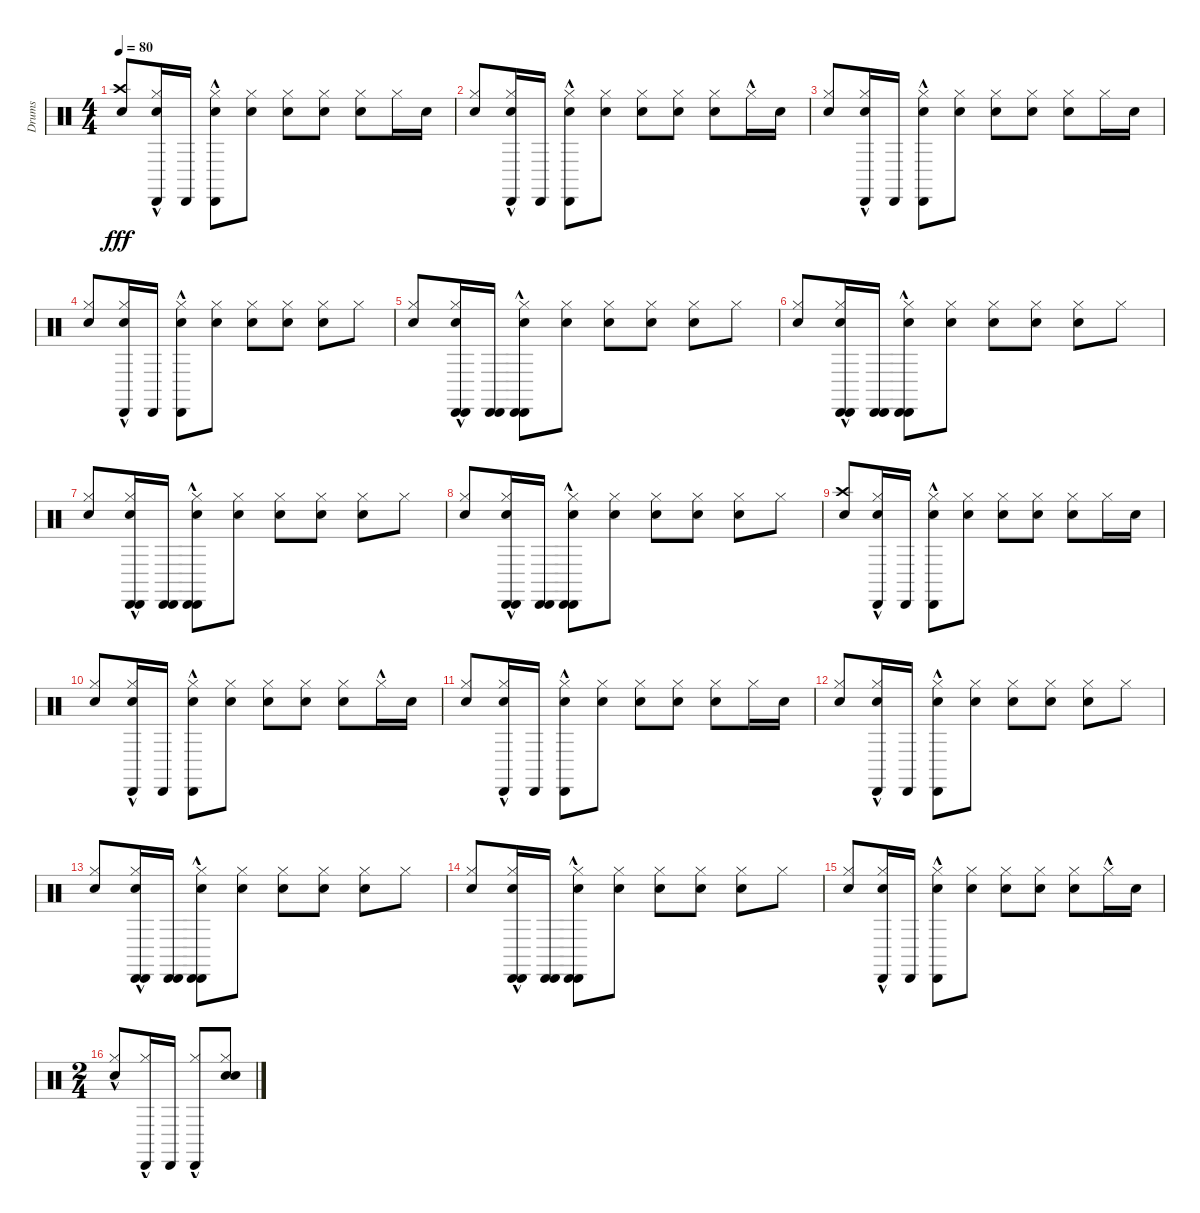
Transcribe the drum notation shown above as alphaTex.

\track ("Drums" "Drums") {instrument percussion}
\staff {score}
\articulation defaults
\ts (4 4)
\tempo 80
\clef neutral
\ks c
("Crash high (hit)" "Snare (hit)").8{dy fff} ("Cabasa (hit)" "Snare (hit)"{hac} "Hi-Hat (closed)"{hac}).16 "Cabasa (hit)".16 ("Cabasa (hit)"{hac} "Snare (hit) 2"{hac} "Hi-Hat (closed)"{hac}).8 ("Snare (hit)" "Hi-Hat (closed)").8 ("Snare (hit)" "Hi-Hat (closed)").8 ("Snare (hit)" "Hi-Hat (closed)").8 ("Snare (hit) 2" "Hi-Hat (closed)").8 "Hi-Hat (closed)".16 "Snare (hit) 2".16 |
("Snare (hit)" "Hi-Hat (closed)").8 ("Cabasa (hit)" "Snare (hit)" "Hi-Hat (closed)"{hac}).16 "Cabasa (hit)".16 ("Cabasa (hit)"{hac} "Snare (hit) 2" "Hi-Hat (closed)"{hac}).8 ("Snare (hit)" "Hi-Hat (closed)").8 ("Snare (hit)" "Hi-Hat (closed)").8 ("Snare (hit)" "Hi-Hat (closed)").8 ("Snare (hit) 2" "Hi-Hat (closed)").8 "Hi-Hat (closed)"{hac}.16 "Snare (hit) 2".16 |
("Snare (hit)" "Hi-Hat (closed)").8 ("Cabasa (hit)" "Snare (hit)"{hac} "Hi-Hat (closed)"{hac}).16 "Cabasa (hit)".16 ("Cabasa (hit)"{hac} "Snare (hit) 2"{hac} "Hi-Hat (closed)"{hac}).8 ("Snare (hit)" "Hi-Hat (closed)").8 ("Snare (hit)" "Hi-Hat (closed)").8 ("Snare (hit)" "Hi-Hat (closed)").8 ("Snare (hit) 2" "Hi-Hat (closed)").8 "Hi-Hat (closed)".16 "Snare (hit) 2".16 |
("Hi-Hat (closed)" "Snare (hit)").8 ("Cabasa (hit)" "Hi-Hat (closed)"{hac} "Snare (hit)"{hac}).16 "Cabasa (hit)".16 ("Cabasa (hit)"{hac} "Hi-Hat (closed)"{hac} "Snare (hit) 2"{hac}).8 ("Hi-Hat (closed)" "Snare (hit)").8 ("Hi-Hat (closed)" "Snare (hit)").8 ("Hi-Hat (closed)" "Snare (hit)").8 ("Hi-Hat (closed)" "Snare (hit) 2").8 "Hi-Hat (closed)".8 |
("Hi-Hat (closed)" "Snare (hit)").8 ("Cabasa (hit)" "Cabasa (hit)" "Hi-Hat (closed)"{hac} "Snare (hit)"{hac}).16 ("Cabasa (hit)" "Cabasa (hit)").16 ("Cabasa (hit)"{hac} "Cabasa (hit)"{hac} "Hi-Hat (closed)"{hac} "Snare (hit) 2"{hac}).8 ("Hi-Hat (closed)" "Snare (hit)").8 ("Hi-Hat (closed)" "Snare (hit)").8 ("Hi-Hat (closed)" "Snare (hit)").8 ("Hi-Hat (closed)" "Snare (hit) 2").8 "Hi-Hat (closed)".8 |
("Hi-Hat (closed)" "Snare (hit)").8 ("Cabasa (hit)" "Cabasa (hit)" "Hi-Hat (closed)"{hac} "Snare (hit)"{hac}).16 ("Cabasa (hit)" "Cabasa (hit)").16 ("Cabasa (hit)"{hac} "Cabasa (hit)"{hac} "Hi-Hat (closed)"{hac} "Snare (hit) 2"{hac}).8 ("Hi-Hat (closed)" "Snare (hit)").8 ("Hi-Hat (closed)" "Snare (hit)").8 ("Hi-Hat (closed)" "Snare (hit)").8 ("Hi-Hat (closed)" "Snare (hit) 2").8 "Hi-Hat (closed)".8 |
("Hi-Hat (closed)" "Snare (hit)").8 ("Cabasa (hit)" "Cabasa (hit)" "Hi-Hat (closed)"{hac} "Snare (hit)"{hac}).16 ("Cabasa (hit)" "Cabasa (hit)").16 ("Cabasa (hit)"{hac} "Cabasa (hit)"{hac} "Hi-Hat (closed)"{hac} "Snare (hit) 2"{hac}).8 ("Hi-Hat (closed)" "Snare (hit)").8 ("Hi-Hat (closed)" "Snare (hit)").8 ("Hi-Hat (closed)" "Snare (hit)").8 ("Hi-Hat (closed)" "Snare (hit) 2").8 "Hi-Hat (closed)".8 |
("Hi-Hat (closed)" "Snare (hit)").8 ("Cabasa (hit)" "Cabasa (hit)" "Hi-Hat (closed)"{hac} "Snare (hit)"{hac}).16 ("Cabasa (hit)" "Cabasa (hit)").16 ("Cabasa (hit)"{hac} "Cabasa (hit)"{hac} "Hi-Hat (closed)"{hac} "Snare (hit) 2"{hac}).8 ("Hi-Hat (closed)" "Snare (hit)").8 ("Hi-Hat (closed)" "Snare (hit)").8 ("Hi-Hat (closed)" "Snare (hit)").8 ("Hi-Hat (closed)" "Snare (hit) 2").8 "Hi-Hat (closed)".8 |
("Crash high (hit)" "Snare (hit)").8 ("Cabasa (hit)" "Snare (hit)"{hac} "Hi-Hat (closed)"{hac}).16 "Cabasa (hit)".16 ("Cabasa (hit)"{hac} "Snare (hit) 2"{hac} "Hi-Hat (closed)"{hac}).8 ("Snare (hit)" "Hi-Hat (closed)").8 ("Snare (hit)" "Hi-Hat (closed)").8 ("Snare (hit)" "Hi-Hat (closed)").8 ("Snare (hit) 2" "Hi-Hat (closed)").8 "Hi-Hat (closed)".16 "Snare (hit) 2".16 |
("Snare (hit)" "Hi-Hat (closed)").8 ("Cabasa (hit)" "Snare (hit)" "Hi-Hat (closed)"{hac}).16 "Cabasa (hit)".16 ("Cabasa (hit)"{hac} "Snare (hit) 2" "Hi-Hat (closed)"{hac}).8 ("Snare (hit)" "Hi-Hat (closed)").8 ("Snare (hit)" "Hi-Hat (closed)").8 ("Snare (hit)" "Hi-Hat (closed)").8 ("Snare (hit) 2" "Hi-Hat (closed)").8 "Hi-Hat (closed)"{hac}.16 "Snare (hit) 2".16 |
("Snare (hit)" "Hi-Hat (closed)").8 ("Cabasa (hit)" "Snare (hit)"{hac} "Hi-Hat (closed)"{hac}).16 "Cabasa (hit)".16 ("Cabasa (hit)"{hac} "Snare (hit) 2"{hac} "Hi-Hat (closed)"{hac}).8 ("Snare (hit)" "Hi-Hat (closed)").8 ("Snare (hit)" "Hi-Hat (closed)").8 ("Snare (hit)" "Hi-Hat (closed)").8 ("Snare (hit) 2" "Hi-Hat (closed)").8 "Hi-Hat (closed)".16 "Snare (hit) 2".16 |
("Hi-Hat (closed)" "Snare (hit)").8 ("Cabasa (hit)" "Hi-Hat (closed)"{hac} "Snare (hit)"{hac}).16 "Cabasa (hit)".16 ("Cabasa (hit)"{hac} "Hi-Hat (closed)"{hac} "Snare (hit) 2"{hac}).8 ("Hi-Hat (closed)" "Snare (hit)").8 ("Hi-Hat (closed)" "Snare (hit)").8 ("Hi-Hat (closed)" "Snare (hit)").8 ("Hi-Hat (closed)" "Snare (hit) 2").8 "Hi-Hat (closed)".8 |
("Hi-Hat (closed)" "Snare (hit)").8 ("Cabasa (hit)" "Cabasa (hit)" "Hi-Hat (closed)"{hac} "Snare (hit)"{hac}).16 ("Cabasa (hit)" "Cabasa (hit)").16 ("Cabasa (hit)"{hac} "Cabasa (hit)"{hac} "Hi-Hat (closed)"{hac} "Snare (hit) 2"{hac}).8 ("Hi-Hat (closed)" "Snare (hit)").8 ("Hi-Hat (closed)" "Snare (hit)").8 ("Hi-Hat (closed)" "Snare (hit)").8 ("Hi-Hat (closed)" "Snare (hit) 2").8 "Hi-Hat (closed)".8 |
("Hi-Hat (closed)" "Snare (hit)").8 ("Cabasa (hit)" "Cabasa (hit)" "Hi-Hat (closed)"{hac} "Snare (hit)"{hac}).16 ("Cabasa (hit)" "Cabasa (hit)").16 ("Cabasa (hit)"{hac} "Cabasa (hit)"{hac} "Hi-Hat (closed)"{hac} "Snare (hit) 2"{hac}).8 ("Hi-Hat (closed)" "Snare (hit)").8 ("Hi-Hat (closed)" "Snare (hit)").8 ("Hi-Hat (closed)" "Snare (hit)").8 ("Hi-Hat (closed)" "Snare (hit) 2").8 "Hi-Hat (closed)".8 |
("Hi-Hat (closed)" "Snare (hit)").8 ("Cabasa (hit)" "Hi-Hat (closed)"{hac} "Snare (hit)"{hac}).16 "Cabasa (hit)".16 ("Cabasa (hit)"{hac} "Hi-Hat (closed)"{hac} "Snare (hit) 2"{hac}).8 ("Hi-Hat (closed)" "Snare (hit)").8 ("Hi-Hat (closed)" "Snare (hit)").8 ("Hi-Hat (closed)" "Snare (hit)").8 ("Hi-Hat (closed)" "Snare (hit) 2").8 "Hi-Hat (closed)"{hac}.16 "Snare (hit) 2".16 |
\ts (2 4)
("Hi-Hat (closed)"{hac} "Snare (hit)"{hac}).8 ("Cabasa (hit)" "Hi-Hat (closed)"{hac}).16 "Cabasa (hit)".16 ("Cabasa (hit)"{hac} "Hi-Hat (closed)"{hac}).8 ("Hi-Hat (closed)" "Snare (hit)" "Snare (hit) 2").8
